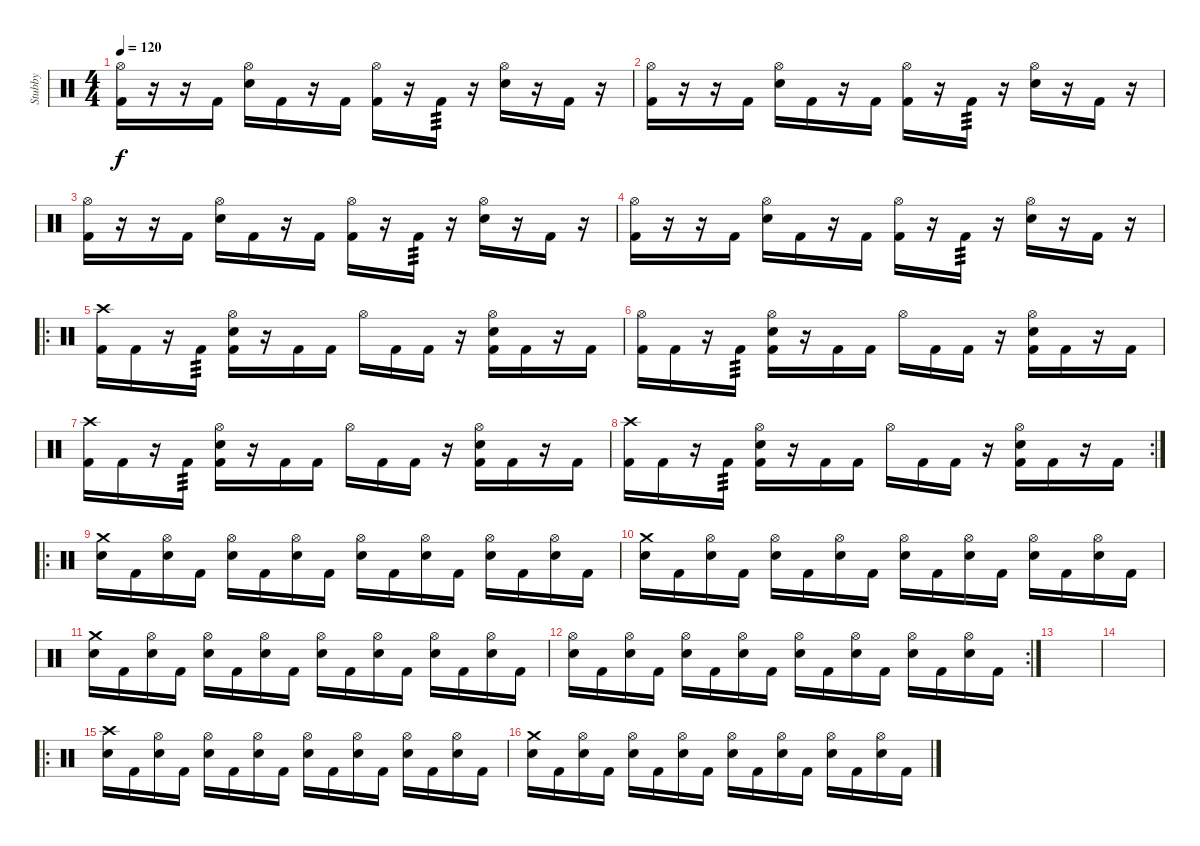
\track ("Stubby" "Stubby") {instrument percussion}
\staff {score}
\articulation defaults
\ts (4 4)
\tempo 120
\clef neutral
\ks c
("Hi-Hat (open)" "Kick (hit) 2").16{dy f} r.16 r.16 "Kick (hit) 2".16 ("Hi-Hat (open)" "Electric Snare (hit)").16 "Kick (hit) 2".16 r.16 "Kick (hit) 2".16 ("Hi-Hat (open)" "Kick (hit) 2").16 r.16 "Kick (hit) 2".16{tp 3} r.16 ("Hi-Hat (open)" "Electric Snare (hit)").16 r.16 "Kick (hit) 2".16 r.16 |
("Hi-Hat (open)" "Kick (hit) 2").16 r.16 r.16 "Kick (hit) 2".16 ("Hi-Hat (open)" "Electric Snare (hit)").16 "Kick (hit) 2".16 r.16 "Kick (hit) 2".16 ("Hi-Hat (open)" "Kick (hit) 2").16 r.16 "Kick (hit) 2".16{tp 3} r.16 ("Hi-Hat (open)" "Electric Snare (hit)").16 r.16 "Kick (hit) 2".16 r.16 |
("Hi-Hat (open)" "Kick (hit) 2").16 r.16 r.16 "Kick (hit) 2".16 ("Hi-Hat (open)" "Electric Snare (hit)").16 "Kick (hit) 2".16 r.16 "Kick (hit) 2".16 ("Hi-Hat (open)" "Kick (hit) 2").16 r.16 "Kick (hit) 2".16{tp 3} r.16 ("Hi-Hat (open)" "Electric Snare (hit)").16 r.16 "Kick (hit) 2".16 r.16 |
("Hi-Hat (open)" "Kick (hit) 2").16 r.16 r.16 "Kick (hit) 2".16 ("Hi-Hat (open)" "Electric Snare (hit)").16 "Kick (hit) 2".16 r.16 "Kick (hit) 2".16 ("Hi-Hat (open)" "Kick (hit) 2").16 r.16 "Kick (hit) 2".16{tp 3} r.16 ("Hi-Hat (open)" "Electric Snare (hit)").16 r.16 "Kick (hit) 2".16 r.16 |
\ro
("Crash high (hit)" "Kick (hit) 2").16 "Kick (hit) 2".16 r.16 "Kick (hit) 2".16{tp 3} ("Hi-Hat (open)" "Electric Snare (hit)" "Kick (hit) 2").16 r.16 "Kick (hit) 2".16 "Kick (hit) 2".16 "Hi-Hat (open)".16 "Kick (hit) 2".16 "Kick (hit) 2".16 r.16 ("Hi-Hat (open)" "Electric Snare (hit)" "Kick (hit) 2").16 "Kick (hit) 2".16 r.16 "Kick (hit) 2".16 |
("Hi-Hat (open)" "Kick (hit) 2").16 "Kick (hit) 2".16 r.16 "Kick (hit) 2".16{tp 3} ("Hi-Hat (open)" "Electric Snare (hit)" "Kick (hit) 2").16 r.16 "Kick (hit) 2".16 "Kick (hit) 2".16 "Hi-Hat (open)".16 "Kick (hit) 2".16 "Kick (hit) 2".16 r.16 ("Hi-Hat (open)" "Electric Snare (hit)" "Kick (hit) 2").16 "Kick (hit) 2".16 r.16 "Kick (hit) 2".16 |
("Crash high (hit)" "Kick (hit) 2").16 "Kick (hit) 2".16 r.16 "Kick (hit) 2".16{tp 3} ("Hi-Hat (open)" "Electric Snare (hit)" "Kick (hit) 2").16 r.16 "Kick (hit) 2".16 "Kick (hit) 2".16 "Hi-Hat (open)".16 "Kick (hit) 2".16 "Kick (hit) 2".16 r.16 ("Hi-Hat (open)" "Electric Snare (hit)" "Kick (hit) 2").16 "Kick (hit) 2".16 r.16 "Kick (hit) 2".16 |
\rc 2
("Crash high (hit)" "Kick (hit) 2").16 "Kick (hit) 2".16 r.16 "Kick (hit) 2".16{tp 3} ("Hi-Hat (open)" "Electric Snare (hit)" "Kick (hit) 2").16 r.16 "Kick (hit) 2".16 "Kick (hit) 2".16 "Hi-Hat (open)".16 "Kick (hit) 2".16 "Kick (hit) 2".16 r.16 ("Hi-Hat (open)" "Electric Snare (hit)" "Kick (hit) 2").16 "Kick (hit) 2".16 r.16 "Kick (hit) 2".16 |
\ro
("Crash medium (hit)" "Electric Snare (hit)").16 "Kick (hit) 2".16 ("Hi-Hat (open)" "Electric Snare (hit)").16 "Kick (hit) 2".16 ("Hi-Hat (open)" "Electric Snare (hit)").16 "Kick (hit) 2".16 ("Hi-Hat (open)" "Electric Snare (hit)").16 "Kick (hit) 2".16 ("Hi-Hat (open)" "Electric Snare (hit)").16 "Kick (hit) 2".16 ("Hi-Hat (open)" "Electric Snare (hit)").16 "Kick (hit) 2".16 ("Hi-Hat (open)" "Electric Snare (hit)").16 "Kick (hit) 2".16 ("Hi-Hat (open)" "Electric Snare (hit)").16 "Kick (hit) 2".16 |
("Crash medium (hit)" "Electric Snare (hit)").16 "Kick (hit) 2".16 ("Hi-Hat (open)" "Electric Snare (hit)").16 "Kick (hit) 2".16 ("Hi-Hat (open)" "Electric Snare (hit)").16 "Kick (hit) 2".16 ("Hi-Hat (open)" "Electric Snare (hit)").16 "Kick (hit) 2".16 ("Hi-Hat (open)" "Electric Snare (hit)").16 "Kick (hit) 2".16 ("Hi-Hat (open)" "Electric Snare (hit)").16 "Kick (hit) 2".16 ("Hi-Hat (open)" "Electric Snare (hit)").16 "Kick (hit) 2".16 ("Hi-Hat (open)" "Electric Snare (hit)").16 "Kick (hit) 2".16 |
("Crash medium (hit)" "Electric Snare (hit)").16 "Kick (hit) 2".16 ("Hi-Hat (open)" "Electric Snare (hit)").16 "Kick (hit) 2".16 ("Hi-Hat (open)" "Electric Snare (hit)").16 "Kick (hit) 2".16 ("Hi-Hat (open)" "Electric Snare (hit)").16 "Kick (hit) 2".16 ("Hi-Hat (open)" "Electric Snare (hit)").16 "Kick (hit) 2".16 ("Hi-Hat (open)" "Electric Snare (hit)").16 "Kick (hit) 2".16 ("Hi-Hat (open)" "Electric Snare (hit)").16 "Kick (hit) 2".16 ("Hi-Hat (open)" "Electric Snare (hit)").16 "Kick (hit) 2".16 |
\rc 2
("Hi-Hat (open)" "Electric Snare (hit)").16 "Kick (hit) 2".16 ("Hi-Hat (open)" "Electric Snare (hit)").16 "Kick (hit) 2".16 ("Hi-Hat (open)" "Electric Snare (hit)").16 "Kick (hit) 2".16 ("Hi-Hat (open)" "Electric Snare (hit)").16 "Kick (hit) 2".16 ("Hi-Hat (open)" "Electric Snare (hit)").16 "Kick (hit) 2".16 ("Hi-Hat (open)" "Electric Snare (hit)").16 "Kick (hit) 2".16 ("Hi-Hat (open)" "Electric Snare (hit)").16 "Kick (hit) 2".16 ("Hi-Hat (open)" "Electric Snare (hit)").16 "Kick (hit) 2".16 |
|
|
\ro
("Crash high (hit)" "Electric Snare (hit)").16 "Kick (hit) 2".16 ("Hi-Hat (open)" "Electric Snare (hit)").16 "Kick (hit) 2".16 ("Hi-Hat (open)" "Electric Snare (hit)").16 "Kick (hit) 2".16 ("Hi-Hat (open)" "Electric Snare (hit)").16 "Kick (hit) 2".16 ("Hi-Hat (open)" "Electric Snare (hit)").16 "Kick (hit) 2".16 ("Hi-Hat (open)" "Electric Snare (hit)").16 "Kick (hit) 2".16 ("Hi-Hat (open)" "Electric Snare (hit)").16 "Kick (hit) 2".16 ("Hi-Hat (open)" "Electric Snare (hit)").16 "Kick (hit) 2".16 |
("Crash medium (hit)" "Electric Snare (hit)").16 "Kick (hit) 2".16 ("Hi-Hat (open)" "Electric Snare (hit)").16 "Kick (hit) 2".16 ("Hi-Hat (open)" "Electric Snare (hit)").16 "Kick (hit) 2".16 ("Hi-Hat (open)" "Electric Snare (hit)").16 "Kick (hit) 2".16 ("Hi-Hat (open)" "Electric Snare (hit)").16 "Kick (hit) 2".16 ("Hi-Hat (open)" "Electric Snare (hit)").16 "Kick (hit) 2".16 ("Hi-Hat (open)" "Electric Snare (hit)").16 "Kick (hit) 2".16 ("Hi-Hat (open)" "Electric Snare (hit)").16 "Kick (hit) 2".16
